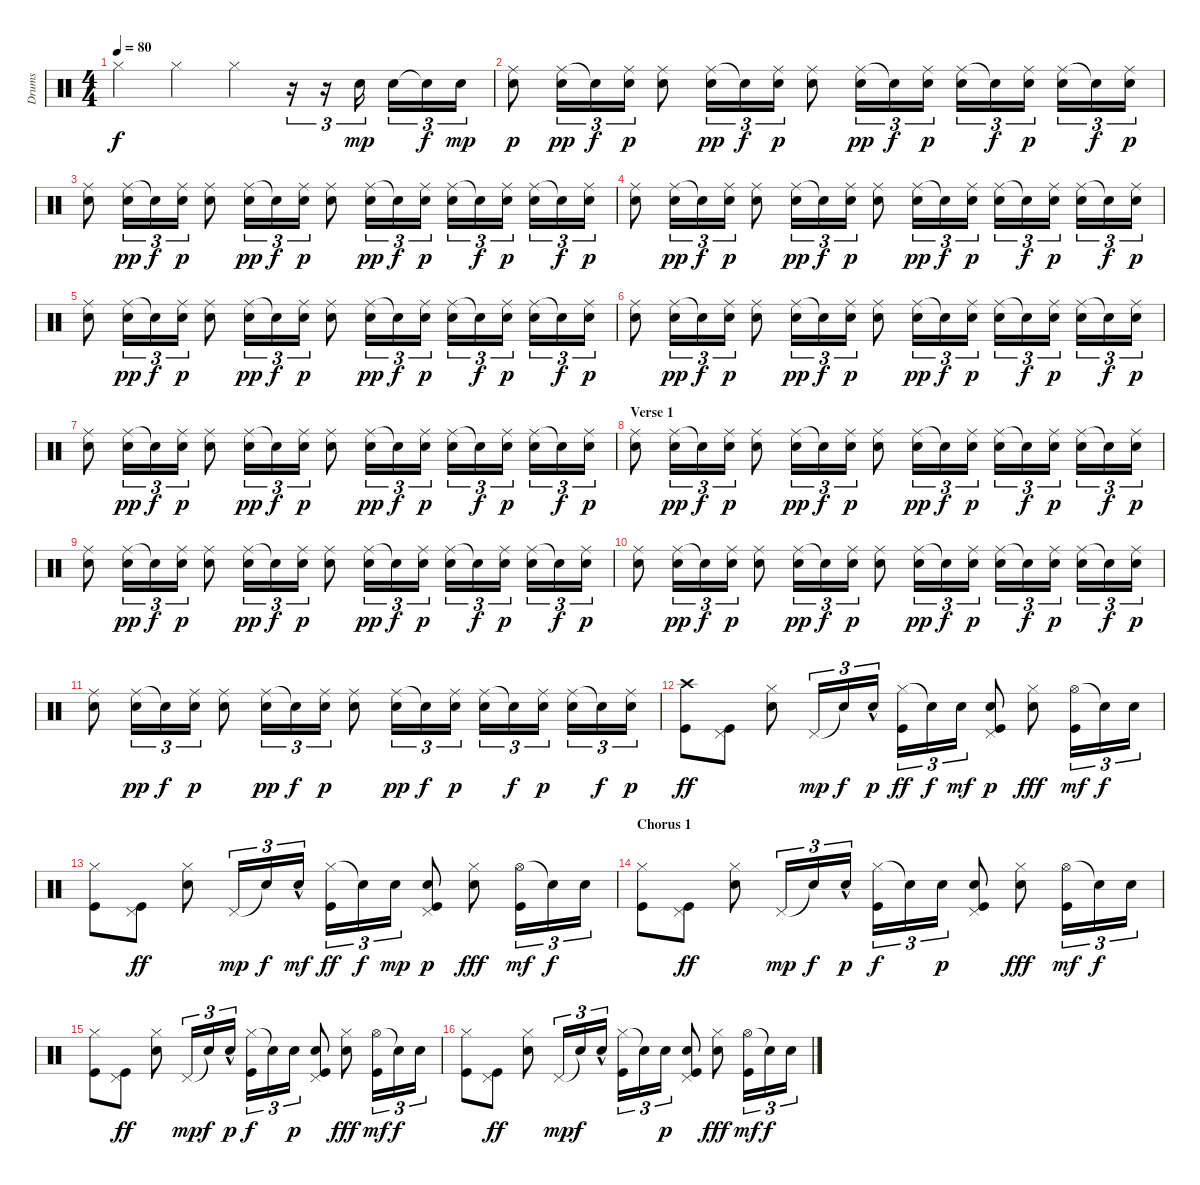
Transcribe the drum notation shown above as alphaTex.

\track ("Drums" "Drums") {instrument percussion}
\staff {score}
\articulation defaults
\ts (4 4)
\tempo 80
\clef neutral
\ks c "Hi-Hat (closed)".4{dy f} "Hi-Hat (closed)".4 "Hi-Hat (closed)".4
r.16{tu (3 2)} r.16{tu (3 2)} "Electric Snare (hit)".16{tu (3 2) dy mp} "Electric Snare (hit)".16{tu (3 2)} "Snare (hit)"{t}.16{tu (3 2) dy f} "Electric Snare (hit)".16{tu (3 2) dy mp} |
("Ride (middle)" "Electric Snare (hit)").8{dy p} ("Ride (middle)" "Electric Snare (hit)").16{tu (3 2) dy pp} "Snare (hit)"{t}.16{tu (3 2) dy f} ("Ride (middle)" "Electric Snare (hit)").16{tu (3 2) dy p} ("Ride (middle)" "Electric Snare (hit)").8 ("Ride (middle)" "Electric Snare (hit)").16{tu (3 2) dy pp} "Snare (hit)"{t}.16{tu (3 2) dy f} ("Ride (middle)" "Electric Snare (hit)").16{tu (3 2) dy p} ("Ride (middle)" "Electric Snare (hit)").8 ("Ride (middle)" "Electric Snare (hit)").16{tu (3 2) dy pp} "Snare (hit)"{t}.16{tu (3 2) dy f} ("Ride (middle)" "Electric Snare (hit)").16{tu (3 2) dy p} ("Ride (middle)" "Electric Snare (hit)").16{tu (3 2)} "Snare (hit)"{t}.16{tu (3 2) dy f} ("Ride (middle)" "Electric Snare (hit)").16{tu (3 2) dy p} ("Ride (middle)" "Electric Snare (hit)").16{tu (3 2)} "Snare (hit)"{t}.16{tu (3 2) dy f} ("Ride (middle)" "Electric Snare (hit)").16{tu (3 2) dy p} |
("Ride (middle)" "Electric Snare (hit)").8 ("Ride (middle)" "Electric Snare (hit)").16{tu (3 2) dy pp} "Snare (hit)"{t}.16{tu (3 2) dy f} ("Ride (middle)" "Electric Snare (hit)").16{tu (3 2) dy p} ("Ride (middle)" "Electric Snare (hit)").8 ("Ride (middle)" "Electric Snare (hit)").16{tu (3 2) dy pp} "Snare (hit)"{t}.16{tu (3 2) dy f} ("Ride (middle)" "Electric Snare (hit)").16{tu (3 2) dy p} ("Ride (middle)" "Electric Snare (hit)").8 ("Ride (middle)" "Electric Snare (hit)").16{tu (3 2) dy pp} "Snare (hit)"{t}.16{tu (3 2) dy f} ("Ride (middle)" "Electric Snare (hit)").16{tu (3 2) dy p} ("Ride (middle)" "Electric Snare (hit)").16{tu (3 2)} "Snare (hit)"{t}.16{tu (3 2) dy f} ("Ride (middle)" "Electric Snare (hit)").16{tu (3 2) dy p} ("Ride (middle)" "Electric Snare (hit)").16{tu (3 2)} "Snare (hit)"{t}.16{tu (3 2) dy f} ("Ride (middle)" "Electric Snare (hit)").16{tu (3 2) dy p} |
("Ride (middle)" "Electric Snare (hit)").8 ("Ride (middle)" "Electric Snare (hit)").16{tu (3 2) dy pp} "Snare (hit)"{t}.16{tu (3 2) dy f} ("Ride (middle)" "Electric Snare (hit)").16{tu (3 2) dy p} ("Ride (middle)" "Electric Snare (hit)").8 ("Ride (middle)" "Electric Snare (hit)").16{tu (3 2) dy pp} "Snare (hit)"{t}.16{tu (3 2) dy f} ("Ride (middle)" "Electric Snare (hit)").16{tu (3 2) dy p} ("Ride (middle)" "Electric Snare (hit)").8 ("Ride (middle)" "Electric Snare (hit)").16{tu (3 2) dy pp} "Snare (hit)"{t}.16{tu (3 2) dy f} ("Ride (middle)" "Electric Snare (hit)").16{tu (3 2) dy p} ("Ride (middle)" "Electric Snare (hit)").16{tu (3 2)} "Snare (hit)"{t}.16{tu (3 2) dy f} ("Ride (middle)" "Electric Snare (hit)").16{tu (3 2) dy p} ("Ride (middle)" "Electric Snare (hit)").16{tu (3 2)} "Snare (hit)"{t}.16{tu (3 2) dy f} ("Ride (middle)" "Electric Snare (hit)").16{tu (3 2) dy p} |
("Ride (middle)" "Electric Snare (hit)").8 ("Ride (middle)" "Electric Snare (hit)").16{tu (3 2) dy pp} "Snare (hit)"{t}.16{tu (3 2) dy f} ("Ride (middle)" "Electric Snare (hit)").16{tu (3 2) dy p} ("Ride (middle)" "Electric Snare (hit)").8 ("Ride (middle)" "Electric Snare (hit)").16{tu (3 2) dy pp} "Snare (hit)"{t}.16{tu (3 2) dy f} ("Ride (middle)" "Electric Snare (hit)").16{tu (3 2) dy p} ("Ride (middle)" "Electric Snare (hit)").8 ("Ride (middle)" "Electric Snare (hit)").16{tu (3 2) dy pp} "Snare (hit)"{t}.16{tu (3 2) dy f} ("Ride (middle)" "Electric Snare (hit)").16{tu (3 2) dy p} ("Ride (middle)" "Electric Snare (hit)").16{tu (3 2)} "Snare (hit)"{t}.16{tu (3 2) dy f} ("Ride (middle)" "Electric Snare (hit)").16{tu (3 2) dy p} ("Ride (middle)" "Electric Snare (hit)").16{tu (3 2)} "Snare (hit)"{t}.16{tu (3 2) dy f} ("Ride (middle)" "Electric Snare (hit)").16{tu (3 2) dy p} |
("Ride (middle)" "Electric Snare (hit)").8 ("Ride (middle)" "Electric Snare (hit)").16{tu (3 2) dy pp} "Snare (hit)"{t}.16{tu (3 2) dy f} ("Ride (middle)" "Electric Snare (hit)").16{tu (3 2) dy p} ("Ride (middle)" "Electric Snare (hit)").8 ("Ride (middle)" "Electric Snare (hit)").16{tu (3 2) dy pp} "Snare (hit)"{t}.16{tu (3 2) dy f} ("Ride (middle)" "Electric Snare (hit)").16{tu (3 2) dy p} ("Ride (middle)" "Electric Snare (hit)").8 ("Ride (middle)" "Electric Snare (hit)").16{tu (3 2) dy pp} "Snare (hit)"{t}.16{tu (3 2) dy f} ("Ride (middle)" "Electric Snare (hit)").16{tu (3 2) dy p} ("Ride (middle)" "Electric Snare (hit)").16{tu (3 2)} "Snare (hit)"{t}.16{tu (3 2) dy f} ("Ride (middle)" "Electric Snare (hit)").16{tu (3 2) dy p} ("Ride (middle)" "Electric Snare (hit)").16{tu (3 2)} "Snare (hit)"{t}.16{tu (3 2) dy f} ("Ride (middle)" "Electric Snare (hit)").16{tu (3 2) dy p} |
("Ride (middle)" "Electric Snare (hit)").8 ("Ride (middle)" "Electric Snare (hit)").16{tu (3 2) dy pp} "Snare (hit)"{t}.16{tu (3 2) dy f} ("Ride (middle)" "Electric Snare (hit)").16{tu (3 2) dy p} ("Ride (middle)" "Electric Snare (hit)").8 ("Ride (middle)" "Electric Snare (hit)").16{tu (3 2) dy pp} "Snare (hit)"{t}.16{tu (3 2) dy f} ("Ride (middle)" "Electric Snare (hit)").16{tu (3 2) dy p} ("Ride (middle)" "Electric Snare (hit)").8 ("Ride (middle)" "Electric Snare (hit)").16{tu (3 2) dy pp} "Snare (hit)"{t}.16{tu (3 2) dy f} ("Ride (middle)" "Electric Snare (hit)").16{tu (3 2) dy p} ("Ride (middle)" "Electric Snare (hit)").16{tu (3 2)} "Snare (hit)"{t}.16{tu (3 2) dy f} ("Ride (middle)" "Electric Snare (hit)").16{tu (3 2) dy p} ("Ride (middle)" "Electric Snare (hit)").16{tu (3 2)} "Snare (hit)"{t}.16{tu (3 2) dy f} ("Ride (middle)" "Electric Snare (hit)").16{tu (3 2) dy p} |
\section ("" "Verse 1")
("Ride (middle)" "Electric Snare (hit)").8 ("Ride (middle)" "Electric Snare (hit)").16{tu (3 2) dy pp} "Snare (hit)"{t}.16{tu (3 2) dy f} ("Ride (middle)" "Electric Snare (hit)").16{tu (3 2) dy p} ("Ride (middle)" "Electric Snare (hit)").8 ("Ride (middle)" "Electric Snare (hit)").16{tu (3 2) dy pp} "Snare (hit)"{t}.16{tu (3 2) dy f} ("Ride (middle)" "Electric Snare (hit)").16{tu (3 2) dy p} ("Ride (middle)" "Electric Snare (hit)").8 ("Ride (middle)" "Electric Snare (hit)").16{tu (3 2) dy pp} "Snare (hit)"{t}.16{tu (3 2) dy f} ("Ride (middle)" "Electric Snare (hit)").16{tu (3 2) dy p} ("Ride (middle)" "Electric Snare (hit)").16{tu (3 2)} "Snare (hit)"{t}.16{tu (3 2) dy f} ("Ride (middle)" "Electric Snare (hit)").16{tu (3 2) dy p} ("Ride (middle)" "Electric Snare (hit)").16{tu (3 2)} "Snare (hit)"{t}.16{tu (3 2) dy f} ("Ride (middle)" "Electric Snare (hit)").16{tu (3 2) dy p} |
("Ride (middle)" "Electric Snare (hit)").8 ("Ride (middle)" "Electric Snare (hit)").16{tu (3 2) dy pp} "Snare (hit)"{t}.16{tu (3 2) dy f} ("Ride (middle)" "Electric Snare (hit)").16{tu (3 2) dy p} ("Ride (middle)" "Electric Snare (hit)").8 ("Ride (middle)" "Electric Snare (hit)").16{tu (3 2) dy pp} "Snare (hit)"{t}.16{tu (3 2) dy f} ("Ride (middle)" "Electric Snare (hit)").16{tu (3 2) dy p} ("Ride (middle)" "Electric Snare (hit)").8 ("Ride (middle)" "Electric Snare (hit)").16{tu (3 2) dy pp} "Snare (hit)"{t}.16{tu (3 2) dy f} ("Ride (middle)" "Electric Snare (hit)").16{tu (3 2) dy p} ("Ride (middle)" "Electric Snare (hit)").16{tu (3 2)} "Snare (hit)"{t}.16{tu (3 2) dy f} ("Ride (middle)" "Electric Snare (hit)").16{tu (3 2) dy p} ("Ride (middle)" "Electric Snare (hit)").16{tu (3 2)} "Snare (hit)"{t}.16{tu (3 2) dy f} ("Ride (middle)" "Electric Snare (hit)").16{tu (3 2) dy p} |
("Ride (middle)" "Electric Snare (hit)").8 ("Ride (middle)" "Electric Snare (hit)").16{tu (3 2) dy pp} "Snare (hit)"{t}.16{tu (3 2) dy f} ("Ride (middle)" "Electric Snare (hit)").16{tu (3 2) dy p} ("Ride (middle)" "Electric Snare (hit)").8 ("Ride (middle)" "Electric Snare (hit)").16{tu (3 2) dy pp} "Snare (hit)"{t}.16{tu (3 2) dy f} ("Ride (middle)" "Electric Snare (hit)").16{tu (3 2) dy p} ("Ride (middle)" "Electric Snare (hit)").8 ("Ride (middle)" "Electric Snare (hit)").16{tu (3 2) dy pp} "Snare (hit)"{t}.16{tu (3 2) dy f} ("Ride (middle)" "Electric Snare (hit)").16{tu (3 2) dy p} ("Ride (middle)" "Electric Snare (hit)").16{tu (3 2)} "Snare (hit)"{t}.16{tu (3 2) dy f} ("Ride (middle)" "Electric Snare (hit)").16{tu (3 2) dy p} ("Ride (middle)" "Electric Snare (hit)").16{tu (3 2)} "Snare (hit)"{t}.16{tu (3 2) dy f} ("Ride (middle)" "Electric Snare (hit)").16{tu (3 2) dy p} |
("Ride (middle)" "Electric Snare (hit)").8 ("Ride (middle)" "Electric Snare (hit)").16{tu (3 2) dy pp} "Snare (hit)"{t}.16{tu (3 2) dy f} ("Ride (middle)" "Electric Snare (hit)").16{tu (3 2) dy p} ("Ride (middle)" "Electric Snare (hit)").8 ("Ride (middle)" "Electric Snare (hit)").16{tu (3 2) dy pp} "Snare (hit)"{t}.16{tu (3 2) dy f} ("Ride (middle)" "Electric Snare (hit)").16{tu (3 2) dy p} ("Ride (middle)" "Electric Snare (hit)").8 ("Ride (middle)" "Electric Snare (hit)").16{tu (3 2) dy pp} "Snare (hit)"{t}.16{tu (3 2) dy f} ("Ride (middle)" "Electric Snare (hit)").16{tu (3 2) dy p} ("Ride (middle)" "Electric Snare (hit)").16{tu (3 2)} "Snare (hit)"{t}.16{tu (3 2) dy f} ("Ride (middle)" "Electric Snare (hit)").16{tu (3 2) dy p} ("Ride (middle)" "Electric Snare (hit)").16{tu (3 2)} "Snare (hit)"{t}.16{tu (3 2) dy f} ("Ride (middle)" "Electric Snare (hit)").16{tu (3 2) dy p} |
("Kick (hit)" "Crash high (hit)").8{dy ff} ("Pedal Hi-Hat (hit)" "Kick (hit)").8 ("Snare (hit) 2" "Hi-Hat (closed)").8 "Pedal Hi-Hat (hit)".16{tu (3 2) dy mp} "Snare (hit)"{t}.16{tu (3 2) dy f} "Snare (hit) 2"{hac}.16{tu (3 2) dy p} ("Hi-Hat (closed)" "Kick (hit)").16{tu (3 2) dy ff} "Snare (hit)"{t}.16{tu (3 2) dy f} "Snare (hit) 2".16{tu (3 2) dy mf} ("Snare (hit) 2" "Pedal Hi-Hat (hit)" "Kick (hit)").8{dy p} ("Snare (hit) 2" "Hi-Hat (closed)").8{dy fff} ("Hi-Hat (open)" "Kick (hit)").16{tu (3 2) dy mf} "Snare (hit)"{t}.16{tu (3 2) dy f} "Snare (hit) 2".16{tu (3 2)} |
("Hi-Hat (closed)" "Kick (hit)").8 ("Pedal Hi-Hat (hit)" "Kick (hit)").8{dy ff} ("Snare (hit) 2" "Hi-Hat (closed)").8 "Pedal Hi-Hat (hit)".16{tu (3 2) dy mp} "Snare (hit)"{t}.16{tu (3 2) dy f} "Snare (hit) 2"{hac}.16{tu (3 2) dy mf} ("Hi-Hat (closed)" "Kick (hit)").16{tu (3 2) dy ff} "Snare (hit)"{t}.16{tu (3 2) dy f} "Snare (hit) 2".16{tu (3 2) dy mp} ("Snare (hit) 2" "Pedal Hi-Hat (hit)" "Kick (hit)").8{dy p} ("Snare (hit) 2" "Hi-Hat (closed)").8{dy fff} ("Hi-Hat (open)" "Kick (hit)").16{tu (3 2) dy mf} "Snare (hit)"{t}.16{tu (3 2) dy f} "Snare (hit) 2".16{tu (3 2)} |
\section ("" "Chorus 1")
("Hi-Hat (closed)" "Kick (hit)").8 ("Pedal Hi-Hat (hit)" "Kick (hit)").8{dy ff} ("Electric Snare (hit)" "Hi-Hat (closed)").8 "Pedal Hi-Hat (hit)".16{tu (3 2) dy mp} "Snare (hit)"{t}.16{tu (3 2) dy f} "Electric Snare (hit)"{hac}.16{tu (3 2) dy p} ("Hi-Hat (closed)" "Kick (hit)").16{tu (3 2) dy f} "Snare (hit)"{t}.16{tu (3 2)} "Electric Snare (hit)".16{tu (3 2) dy p} ("Electric Snare (hit)" "Pedal Hi-Hat (hit)" "Kick (hit)").8 ("Electric Snare (hit)" "Hi-Hat (closed)").8{dy fff} ("Hi-Hat (open)" "Kick (hit)").16{tu (3 2) dy mf} "Snare (hit)"{t}.16{tu (3 2) dy f} "Electric Snare (hit)".16{tu (3 2)} |
("Hi-Hat (closed)" "Kick (hit)").8 ("Pedal Hi-Hat (hit)" "Kick (hit)").8{dy ff} ("Electric Snare (hit)" "Hi-Hat (closed)").8 "Pedal Hi-Hat (hit)".16{tu (3 2) dy mp} "Snare (hit)"{t}.16{tu (3 2) dy f} "Electric Snare (hit)"{hac}.16{tu (3 2) dy p} ("Hi-Hat (closed)" "Kick (hit)").16{tu (3 2) dy f} "Snare (hit)"{t}.16{tu (3 2)} "Electric Snare (hit)".16{tu (3 2) dy p} ("Electric Snare (hit)" "Pedal Hi-Hat (hit)" "Kick (hit)").8 ("Electric Snare (hit)" "Hi-Hat (closed)").8{dy fff} ("Hi-Hat (open)" "Kick (hit)").16{tu (3 2) dy mf} "Snare (hit)"{t}.16{tu (3 2) dy f} "Electric Snare (hit)".16{tu (3 2)} |
("Hi-Hat (closed)" "Kick (hit)").8 ("Pedal Hi-Hat (hit)" "Kick (hit)").8{dy ff} ("Electric Snare (hit)" "Hi-Hat (closed)").8 "Pedal Hi-Hat (hit)".16{tu (3 2) dy mp} "Snare (hit)"{t}.16{tu (3 2) dy f} "Electric Snare (hit)"{hac}.16{tu (3 2)} ("Hi-Hat (closed)" "Kick (hit)").16{tu (3 2)} "Snare (hit)"{t}.16{tu (3 2)} "Electric Snare (hit)".16{tu (3 2) dy p} ("Electric Snare (hit)" "Pedal Hi-Hat (hit)" "Kick (hit)").8 ("Electric Snare (hit)" "Hi-Hat (closed)").8{dy fff} ("Hi-Hat (open)" "Kick (hit)").16{tu (3 2) dy mf} "Snare (hit)"{t}.16{tu (3 2) dy f} "Electric Snare (hit)".16{tu (3 2)}
